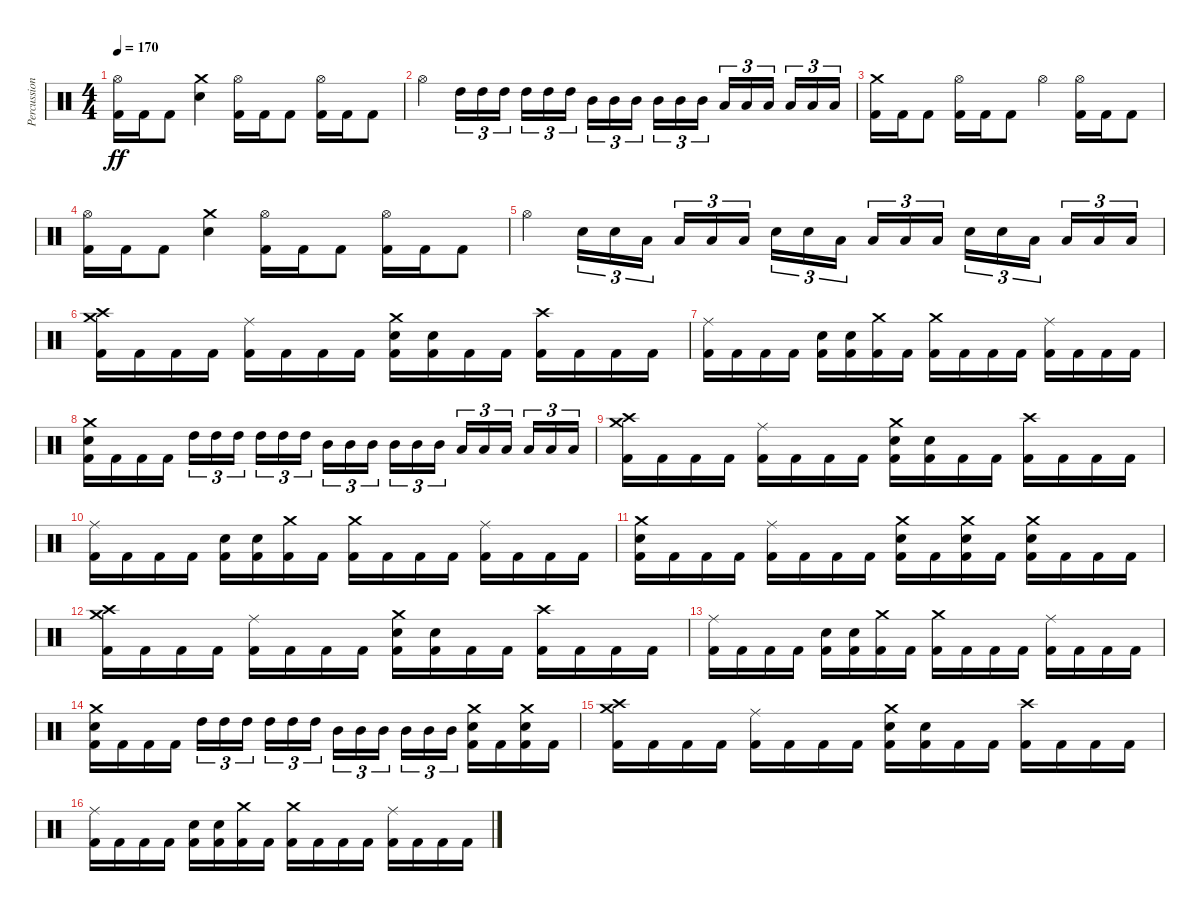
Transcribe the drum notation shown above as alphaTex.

\track ("Percussion" "Percussion") {instrument percussion}
\staff {score}
\articulation defaults
\ts (4 4)
\tempo 170
\clef neutral
\ks c
("Kick (hit) 2" "Hi-Hat (open)").16{dy ff} "Kick (hit) 2".16 "Kick (hit) 2".8 ("Electric Snare (hit)" "Crash medium (hit)").4 ("Kick (hit) 2" "Hi-Hat (open)").16 "Kick (hit) 2".16 "Kick (hit) 2".8 ("Kick (hit) 2" "Hi-Hat (open)").16 "Kick (hit) 2".16 "Kick (hit) 2".8 |
"Hi-Hat (open)".4 "High Tom (hit)".16{tu (3 2)} "High Tom (hit)".16{tu (3 2)} "High Tom (hit)".16{tu (3 2)} "High Tom (hit)".16{tu (3 2)} "High Tom (hit)".16{tu (3 2)} "High Tom (hit)".16{tu (3 2)} "Mid Tom (hit)".16{tu (3 2)} "Mid Tom (hit)".16{tu (3 2)} "Mid Tom (hit)".16{tu (3 2)} "Mid Tom (hit)".16{tu (3 2)} "Mid Tom (hit)".16{tu (3 2)} "Mid Tom (hit)".16{tu (3 2)} "Low Tom (hit)".16{tu (3 2)} "Low Tom (hit)".16{tu (3 2)} "Low Tom (hit)".16{tu (3 2)} "Low Tom (hit)".16{tu (3 2)} "Low Tom (hit)".16{tu (3 2)} "Low Tom (hit)".16{tu (3 2)} |
("Kick (hit) 2" "Crash medium (hit)").16 "Kick (hit) 2".16 "Kick (hit) 2".8 ("Kick (hit) 2" "Hi-Hat (open)").16 "Kick (hit) 2".16 "Kick (hit) 2".8 "Hi-Hat (open)".4 ("Kick (hit) 2" "Hi-Hat (open)").16 "Kick (hit) 2".16 "Kick (hit) 2".8 |
("Kick (hit) 2" "Hi-Hat (open)").16 "Kick (hit) 2".16 "Kick (hit) 2".8 ("Electric Snare (hit)" "Crash medium (hit)").4 ("Kick (hit) 2" "Hi-Hat (open)").16 "Kick (hit) 2".16 "Kick (hit) 2".8 ("Kick (hit) 2" "Hi-Hat (open)").16 "Kick (hit) 2".16 "Kick (hit) 2".8 |
"Hi-Hat (open)".4 "Electric Snare (hit)".16{tu (3 2)} "Electric Snare (hit)".16{tu (3 2)} "Low Tom (hit)".16{tu (3 2)} "Low Tom (hit)".16{tu (3 2)} "Low Tom (hit)".16{tu (3 2)} "Low Tom (hit)".16{tu (3 2)} "Electric Snare (hit)".16{tu (3 2)} "Electric Snare (hit)".16{tu (3 2)} "Low Tom (hit)".16{tu (3 2)} "Low Tom (hit)".16{tu (3 2)} "Low Tom (hit)".16{tu (3 2)} "Low Tom (hit)".16{tu (3 2)} "Electric Snare (hit)".16{tu (3 2)} "Electric Snare (hit)".16{tu (3 2)} "Low Tom (hit)".16{tu (3 2)} "Low Tom (hit)".16{tu (3 2)} "Low Tom (hit)".16{tu (3 2)} "Low Tom (hit)".16{tu (3 2)} |
("Kick (hit) 2" "Crash medium (hit)" "Crash high (hit)").16 "Kick (hit) 2".16 "Kick (hit) 2".16 "Kick (hit) 2".16 ("Kick (hit) 2" "Ride (middle)").16 "Kick (hit) 2".16 "Kick (hit) 2".16 "Kick (hit) 2".16 ("Kick (hit) 2" "Electric Snare (hit)" "Crash medium (hit)").16 ("Kick (hit) 2" "Electric Snare (hit)").16 "Kick (hit) 2".16 "Kick (hit) 2".16 ("Kick (hit) 2" "Crash high (hit)").16 "Kick (hit) 2".16 "Kick (hit) 2".16 "Kick (hit) 2".16 |
("Kick (hit) 2" "Ride (middle)").16 "Kick (hit) 2".16 "Kick (hit) 2".16 "Kick (hit) 2".16 ("Kick (hit) 2" "Electric Snare (hit)").16 ("Kick (hit) 2" "Electric Snare (hit)").16 ("Kick (hit) 2" "Crash medium (hit)").16 "Kick (hit) 2".16 ("Kick (hit) 2" "Crash medium (hit)").16 "Kick (hit) 2".16 "Kick (hit) 2".16 "Kick (hit) 2".16 ("Kick (hit) 2" "Ride (middle)").16 "Kick (hit) 2".16 "Kick (hit) 2".16 "Kick (hit) 2".16 |
("Kick (hit) 2" "Electric Snare (hit)" "Crash medium (hit)").16 "Kick (hit) 2".16 "Kick (hit) 2".16 "Kick (hit) 2".16 "High Tom (hit)".16{tu (3 2)} "High Tom (hit)".16{tu (3 2)} "High Tom (hit)".16{tu (3 2)} "High Tom (hit)".16{tu (3 2)} "High Tom (hit)".16{tu (3 2)} "High Tom (hit)".16{tu (3 2)} "Mid Tom (hit)".16{tu (3 2)} "Mid Tom (hit)".16{tu (3 2)} "Mid Tom (hit)".16{tu (3 2)} "Mid Tom (hit)".16{tu (3 2)} "Mid Tom (hit)".16{tu (3 2)} "Mid Tom (hit)".16{tu (3 2)} "Low Tom (hit)".16{tu (3 2)} "Low Tom (hit)".16{tu (3 2)} "Low Tom (hit)".16{tu (3 2)} "Low Tom (hit)".16{tu (3 2)} "Low Tom (hit)".16{tu (3 2)} "Low Tom (hit)".16{tu (3 2)} |
("Kick (hit) 2" "Crash medium (hit)" "Crash high (hit)").16 "Kick (hit) 2".16 "Kick (hit) 2".16 "Kick (hit) 2".16 ("Kick (hit) 2" "Ride (middle)").16 "Kick (hit) 2".16 "Kick (hit) 2".16 "Kick (hit) 2".16 ("Kick (hit) 2" "Electric Snare (hit)" "Crash medium (hit)").16 ("Kick (hit) 2" "Electric Snare (hit)").16 "Kick (hit) 2".16 "Kick (hit) 2".16 ("Kick (hit) 2" "Crash high (hit)").16 "Kick (hit) 2".16 "Kick (hit) 2".16 "Kick (hit) 2".16 |
("Kick (hit) 2" "Ride (middle)").16 "Kick (hit) 2".16 "Kick (hit) 2".16 "Kick (hit) 2".16 ("Kick (hit) 2" "Electric Snare (hit)").16 ("Kick (hit) 2" "Electric Snare (hit)").16 ("Kick (hit) 2" "Crash medium (hit)").16 "Kick (hit) 2".16 ("Kick (hit) 2" "Crash medium (hit)").16 "Kick (hit) 2".16 "Kick (hit) 2".16 "Kick (hit) 2".16 ("Kick (hit) 2" "Ride (middle)").16 "Kick (hit) 2".16 "Kick (hit) 2".16 "Kick (hit) 2".16 |
("Kick (hit) 2" "Electric Snare (hit)" "Crash medium (hit)").16 "Kick (hit) 2".16 "Kick (hit) 2".16 "Kick (hit) 2".16 ("Kick (hit) 2" "Ride (middle)").16 "Kick (hit) 2".16 "Kick (hit) 2".16 "Kick (hit) 2".16 ("Kick (hit) 2" "Electric Snare (hit)" "Crash medium (hit)").16 "Kick (hit) 2".16 ("Kick (hit) 2" "Electric Snare (hit)" "Crash medium (hit)").16 "Kick (hit) 2".16 ("Kick (hit) 2" "Electric Snare (hit)" "Crash medium (hit)").16 "Kick (hit) 2".16 "Kick (hit) 2".16 "Kick (hit) 2".16 |
("Kick (hit) 2" "Crash medium (hit)" "Crash high (hit)").16 "Kick (hit) 2".16 "Kick (hit) 2".16 "Kick (hit) 2".16 ("Kick (hit) 2" "Ride (middle)").16 "Kick (hit) 2".16 "Kick (hit) 2".16 "Kick (hit) 2".16 ("Kick (hit) 2" "Electric Snare (hit)" "Crash medium (hit)").16 ("Kick (hit) 2" "Electric Snare (hit)").16 "Kick (hit) 2".16 "Kick (hit) 2".16 ("Kick (hit) 2" "Crash high (hit)").16 "Kick (hit) 2".16 "Kick (hit) 2".16 "Kick (hit) 2".16 |
("Kick (hit) 2" "Ride (middle)").16 "Kick (hit) 2".16 "Kick (hit) 2".16 "Kick (hit) 2".16 ("Kick (hit) 2" "Electric Snare (hit)").16 ("Kick (hit) 2" "Electric Snare (hit)").16 ("Kick (hit) 2" "Crash medium (hit)").16 "Kick (hit) 2".16 ("Kick (hit) 2" "Crash medium (hit)").16 "Kick (hit) 2".16 "Kick (hit) 2".16 "Kick (hit) 2".16 ("Kick (hit) 2" "Ride (middle)").16 "Kick (hit) 2".16 "Kick (hit) 2".16 "Kick (hit) 2".16 |
("Kick (hit) 2" "Electric Snare (hit)" "Crash medium (hit)").16 "Kick (hit) 2".16 "Kick (hit) 2".16 "Kick (hit) 2".16 "High Tom (hit)".16{tu (3 2)} "High Tom (hit)".16{tu (3 2)} "High Tom (hit)".16{tu (3 2)} "High Tom (hit)".16{tu (3 2)} "High Tom (hit)".16{tu (3 2)} "High Tom (hit)".16{tu (3 2)} "Mid Tom (hit)".16{tu (3 2)} "Mid Tom (hit)".16{tu (3 2)} "Mid Tom (hit)".16{tu (3 2)} "Mid Tom (hit)".16{tu (3 2)} "Mid Tom (hit)".16{tu (3 2)} "Mid Tom (hit)".16{tu (3 2)} ("Kick (hit) 2" "Electric Snare (hit)" "Crash medium (hit)").16 "Kick (hit) 2".16 ("Kick (hit) 2" "Electric Snare (hit)" "Crash medium (hit)").16 "Kick (hit) 2".16 |
("Kick (hit) 2" "Crash medium (hit)" "Crash high (hit)").16 "Kick (hit) 2".16 "Kick (hit) 2".16 "Kick (hit) 2".16 ("Kick (hit) 2" "Ride (middle)").16 "Kick (hit) 2".16 "Kick (hit) 2".16 "Kick (hit) 2".16 ("Kick (hit) 2" "Electric Snare (hit)" "Crash medium (hit)").16 ("Kick (hit) 2" "Electric Snare (hit)").16 "Kick (hit) 2".16 "Kick (hit) 2".16 ("Kick (hit) 2" "Crash high (hit)").16 "Kick (hit) 2".16 "Kick (hit) 2".16 "Kick (hit) 2".16 |
("Kick (hit) 2" "Ride (middle)").16 "Kick (hit) 2".16 "Kick (hit) 2".16 "Kick (hit) 2".16 ("Kick (hit) 2" "Electric Snare (hit)").16 ("Kick (hit) 2" "Electric Snare (hit)").16 ("Kick (hit) 2" "Crash medium (hit)").16 "Kick (hit) 2".16 ("Kick (hit) 2" "Crash medium (hit)").16 "Kick (hit) 2".16 "Kick (hit) 2".16 "Kick (hit) 2".16 ("Kick (hit) 2" "Ride (middle)").16 "Kick (hit) 2".16 "Kick (hit) 2".16 "Kick (hit) 2".16
